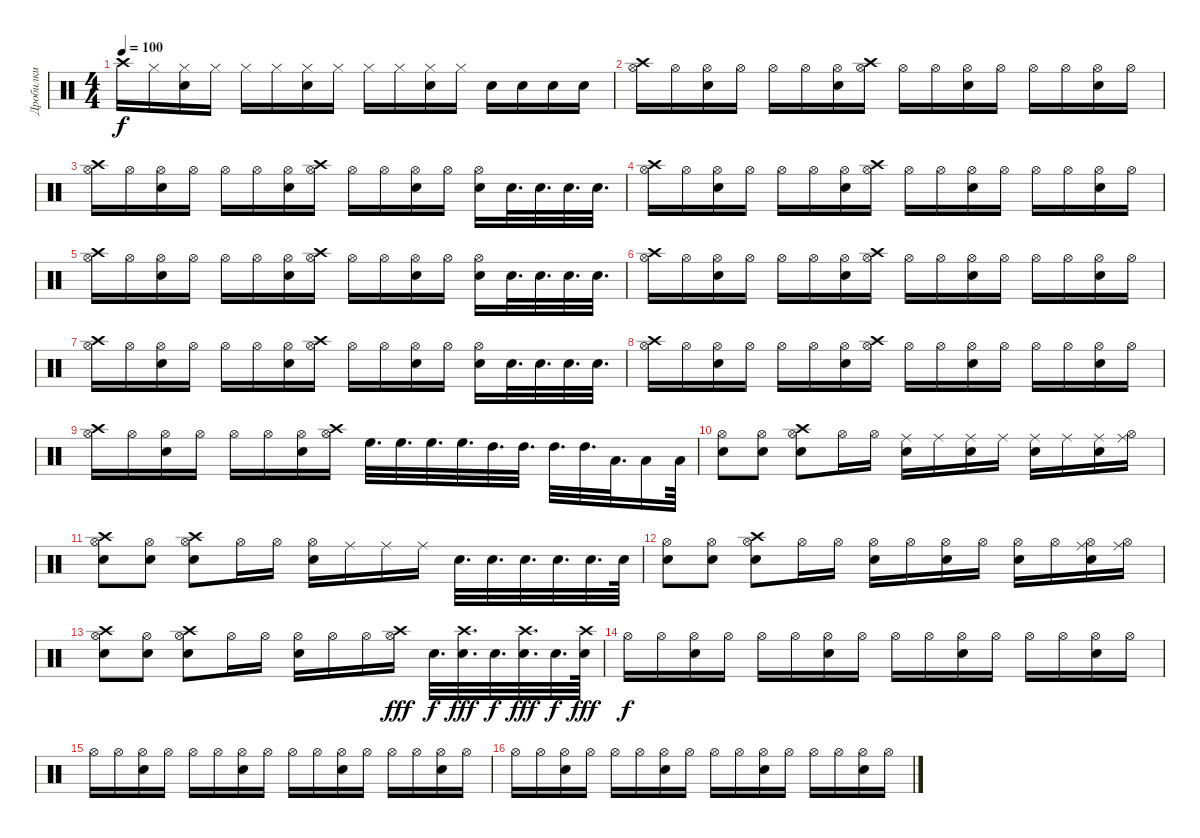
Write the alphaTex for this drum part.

\track ("Дробилки" "Дробилки") {instrument percussion}
\staff {score}
\articulation defaults
\ts (4 4)
\tempo 100
\clef neutral
\ks c "Crash high (hit)".16{dy f} "Hi-Hat (closed)".16
("Hi-Hat (closed)" "Snare (hit) 2").16 "Hi-Hat (closed)".16 "Hi-Hat (closed)".16 "Hi-Hat (closed)".16 ("Hi-Hat (closed)" "Snare (hit) 2").16 "Hi-Hat (closed)".16 "Hi-Hat (closed)".16 "Hi-Hat (closed)".16 ("Hi-Hat (closed)" "Snare (hit) 2").16 "Hi-Hat (closed)".16 "Snare (hit) 2".16 "Snare (hit) 2".16 "Snare (hit) 2".16 "Snare (hit) 2".16 |
("Hi-Hat (open)" "Crash high (hit)").16 "Hi-Hat (open)".16 ("Hi-Hat (open)" "Snare (hit) 2").16 "Hi-Hat (open)".16 "Hi-Hat (open)".16 "Hi-Hat (open)".16 ("Hi-Hat (open)" "Snare (hit) 2").16 ("Hi-Hat (open)" "Crash high (hit)").16 "Hi-Hat (open)".16 "Hi-Hat (open)".16 ("Hi-Hat (open)" "Snare (hit) 2").16 "Hi-Hat (open)".16 "Hi-Hat (open)".16 "Hi-Hat (open)".16 ("Hi-Hat (open)" "Snare (hit) 2").16 "Hi-Hat (open)".16 |
("Hi-Hat (open)" "Crash high (hit)").16 "Hi-Hat (open)".16 ("Hi-Hat (open)" "Snare (hit) 2").16 "Hi-Hat (open)".16 "Hi-Hat (open)".16 "Hi-Hat (open)".16 ("Hi-Hat (open)" "Snare (hit) 2").16 ("Hi-Hat (open)" "Crash high (hit)").16 "Hi-Hat (open)".16 "Hi-Hat (open)".16 ("Hi-Hat (open)" "Snare (hit) 2").16 "Hi-Hat (open)".16 ("Hi-Hat (open)" "Snare (hit) 2").16 "Snare (hit) 2".32{d} "Snare (hit) 2".32{d} "Snare (hit) 2".32{d} "Snare (hit) 2".32{d} |
("Hi-Hat (open)" "Crash high (hit)").16 "Hi-Hat (open)".16 ("Hi-Hat (open)" "Snare (hit) 2").16 "Hi-Hat (open)".16 "Hi-Hat (open)".16 "Hi-Hat (open)".16 ("Hi-Hat (open)" "Snare (hit) 2").16 ("Hi-Hat (open)" "Crash high (hit)").16 "Hi-Hat (open)".16 "Hi-Hat (open)".16 ("Hi-Hat (open)" "Snare (hit) 2").16 "Hi-Hat (open)".16 "Hi-Hat (open)".16 "Hi-Hat (open)".16 ("Hi-Hat (open)" "Snare (hit) 2").16 "Hi-Hat (open)".16 |
("Hi-Hat (open)" "Crash high (hit)").16 "Hi-Hat (open)".16 ("Hi-Hat (open)" "Snare (hit) 2").16 "Hi-Hat (open)".16 "Hi-Hat (open)".16 "Hi-Hat (open)".16 ("Hi-Hat (open)" "Snare (hit) 2").16 ("Hi-Hat (open)" "Crash high (hit)").16 "Hi-Hat (open)".16 "Hi-Hat (open)".16 ("Hi-Hat (open)" "Snare (hit) 2").16 "Hi-Hat (open)".16 ("Hi-Hat (open)" "Snare (hit) 2").16 "Snare (hit) 2".32{d} "Snare (hit) 2".32{d} "Snare (hit) 2".32{d} "Snare (hit) 2".32{d} |
("Hi-Hat (open)" "Crash high (hit)").16 "Hi-Hat (open)".16 ("Hi-Hat (open)" "Snare (hit) 2").16 "Hi-Hat (open)".16 "Hi-Hat (open)".16 "Hi-Hat (open)".16 ("Hi-Hat (open)" "Snare (hit) 2").16 ("Hi-Hat (open)" "Crash high (hit)").16 "Hi-Hat (open)".16 "Hi-Hat (open)".16 ("Hi-Hat (open)" "Snare (hit) 2").16 "Hi-Hat (open)".16 "Hi-Hat (open)".16 "Hi-Hat (open)".16 ("Hi-Hat (open)" "Snare (hit) 2").16 "Hi-Hat (open)".16 |
("Hi-Hat (open)" "Crash high (hit)").16 "Hi-Hat (open)".16 ("Hi-Hat (open)" "Snare (hit) 2").16 "Hi-Hat (open)".16 "Hi-Hat (open)".16 "Hi-Hat (open)".16 ("Hi-Hat (open)" "Snare (hit) 2").16 ("Hi-Hat (open)" "Crash high (hit)").16 "Hi-Hat (open)".16 "Hi-Hat (open)".16 ("Hi-Hat (open)" "Snare (hit) 2").16 "Hi-Hat (open)".16 ("Hi-Hat (open)" "Snare (hit) 2").16 "Snare (hit) 2".32{d} "Snare (hit) 2".32{d} "Snare (hit) 2".32{d} "Snare (hit) 2".32{d} |
("Hi-Hat (open)" "Crash high (hit)").16 "Hi-Hat (open)".16 ("Hi-Hat (open)" "Snare (hit) 2").16 "Hi-Hat (open)".16 "Hi-Hat (open)".16 "Hi-Hat (open)".16 ("Hi-Hat (open)" "Snare (hit) 2").16 ("Hi-Hat (open)" "Crash high (hit)").16 "Hi-Hat (open)".16 "Hi-Hat (open)".16 ("Hi-Hat (open)" "Snare (hit) 2").16 "Hi-Hat (open)".16 "Hi-Hat (open)".16 "Hi-Hat (open)".16 ("Hi-Hat (open)" "Snare (hit) 2").16 "Hi-Hat (open)".16 |
("Hi-Hat (open)" "Crash high (hit)").16 "Hi-Hat (open)".16 ("Hi-Hat (open)" "Snare (hit) 2").16 "Hi-Hat (open)".16 "Hi-Hat (open)".16 "Hi-Hat (open)".16 ("Hi-Hat (open)" "Snare (hit) 2").16 ("Hi-Hat (open)" "Crash high (hit)").16 "High Floor Tom (hit)".32{d} "High Floor Tom (hit)".32{d} "High Floor Tom (hit)".32{d} "High Floor Tom (hit)".32{d} "High Tom (hit)".32{d} "High Tom (hit)".32{d} "High Tom (hit)".32{d} "High Tom (hit)".32{d} "Low Tom (hit)".32{d} "Low Tom (hit)".16 "Low Tom (hit)".64 |
("Hi-Hat (open)" "Snare (hit) 2").8 ("Hi-Hat (open)" "Snare (hit) 2").8 ("Hi-Hat (open)" "Crash high (hit)" "Snare (hit) 2").8 "Hi-Hat (open)".16 "Hi-Hat (open)".16 ("Snare (hit) 2" "Ride (middle)").16 "Ride (middle)".16 ("Snare (hit) 2" "Ride (middle)").16 "Ride (middle)".16 ("Snare (hit) 2" "Ride (middle)").16 "Ride (middle)".16 ("Ride (middle)" "Snare (hit) 2").16 ("Ride (middle)" "Hi-Hat (open)").16 |
("Crash high (hit)" "Hi-Hat (open)" "Snare (hit) 2").8 ("Hi-Hat (open)" "Snare (hit) 2").8 ("Crash high (hit)" "Hi-Hat (open)" "Snare (hit) 2").8 "Hi-Hat (open)".16 "Hi-Hat (open)".16 ("Snare (hit) 2" "Hi-Hat (open)").16 "Ride (middle)".16 "Ride (middle)".16 "Ride (middle)".16 "Snare (hit) 2".32{d} "Snare (hit) 2".32{d} "Snare (hit) 2".32{d} "Snare (hit) 2".32{d} "Snare (hit) 2".32{d} "Snare (hit) 2".64 |
("Hi-Hat (open)" "Snare (hit) 2").8 ("Hi-Hat (open)" "Snare (hit) 2").8 ("Hi-Hat (open)" "Crash high (hit)" "Snare (hit) 2").8 "Hi-Hat (open)".16 "Hi-Hat (open)".16 ("Snare (hit) 2" "Hi-Hat (open)").16 "Hi-Hat (open)".16 ("Snare (hit) 2" "Hi-Hat (open)").16 "Hi-Hat (open)".16 ("Snare (hit) 2" "Hi-Hat (open)").16 "Hi-Hat (open)".16 ("Ride (middle)" "Snare (hit) 2" "Hi-Hat (open)").16 ("Ride (middle)" "Hi-Hat (open)").16 |
("Crash high (hit)" "Hi-Hat (open)" "Snare (hit) 2").8 ("Hi-Hat (open)" "Snare (hit) 2").8 ("Crash high (hit)" "Hi-Hat (open)" "Snare (hit) 2").8 "Hi-Hat (open)".16 "Hi-Hat (open)".16 ("Snare (hit) 2" "Hi-Hat (open)").16 "Hi-Hat (open)".16 "Hi-Hat (open)".16 ("Crash high (hit)" "Hi-Hat (open)").16{dy fff} "Snare (hit) 2".32{d dy f} ("Crash high (hit)" "Snare (hit) 2").32{d dy fff} "Snare (hit) 2".32{d dy f} ("Crash high (hit)" "Snare (hit) 2").32{d dy fff} "Snare (hit) 2".32{d dy f} ("Crash high (hit)" "Snare (hit) 2").64{dy fff} |
"Hi-Hat (open)".16{dy f} "Hi-Hat (open)".16 ("Hi-Hat (open)" "Snare (hit) 2").16 "Hi-Hat (open)".16 "Hi-Hat (open)".16 "Hi-Hat (open)".16 ("Hi-Hat (open)" "Snare (hit) 2").16 "Hi-Hat (open)".16 "Hi-Hat (open)".16 "Hi-Hat (open)".16 ("Hi-Hat (open)" "Snare (hit) 2").16 "Hi-Hat (open)".16 "Hi-Hat (open)".16 "Hi-Hat (open)".16 ("Hi-Hat (open)" "Snare (hit) 2").16 "Hi-Hat (open)".16 |
"Hi-Hat (open)".16 "Hi-Hat (open)".16 ("Hi-Hat (open)" "Snare (hit) 2").16 "Hi-Hat (open)".16 "Hi-Hat (open)".16 "Hi-Hat (open)".16 ("Hi-Hat (open)" "Snare (hit) 2").16 "Hi-Hat (open)".16 "Hi-Hat (open)".16 "Hi-Hat (open)".16 ("Hi-Hat (open)" "Snare (hit) 2").16 "Hi-Hat (open)".16 "Hi-Hat (open)".16 "Hi-Hat (open)".16 ("Hi-Hat (open)" "Snare (hit) 2").16 "Hi-Hat (open)".16 |
"Hi-Hat (open)".16 "Hi-Hat (open)".16 ("Hi-Hat (open)" "Snare (hit) 2").16 "Hi-Hat (open)".16 "Hi-Hat (open)".16 "Hi-Hat (open)".16 ("Hi-Hat (open)" "Snare (hit) 2").16 "Hi-Hat (open)".16 "Hi-Hat (open)".16 "Hi-Hat (open)".16 ("Hi-Hat (open)" "Snare (hit) 2").16 "Hi-Hat (open)".16 "Hi-Hat (open)".16 "Hi-Hat (open)".16 ("Hi-Hat (open)" "Snare (hit) 2").16 "Hi-Hat (open)".16
